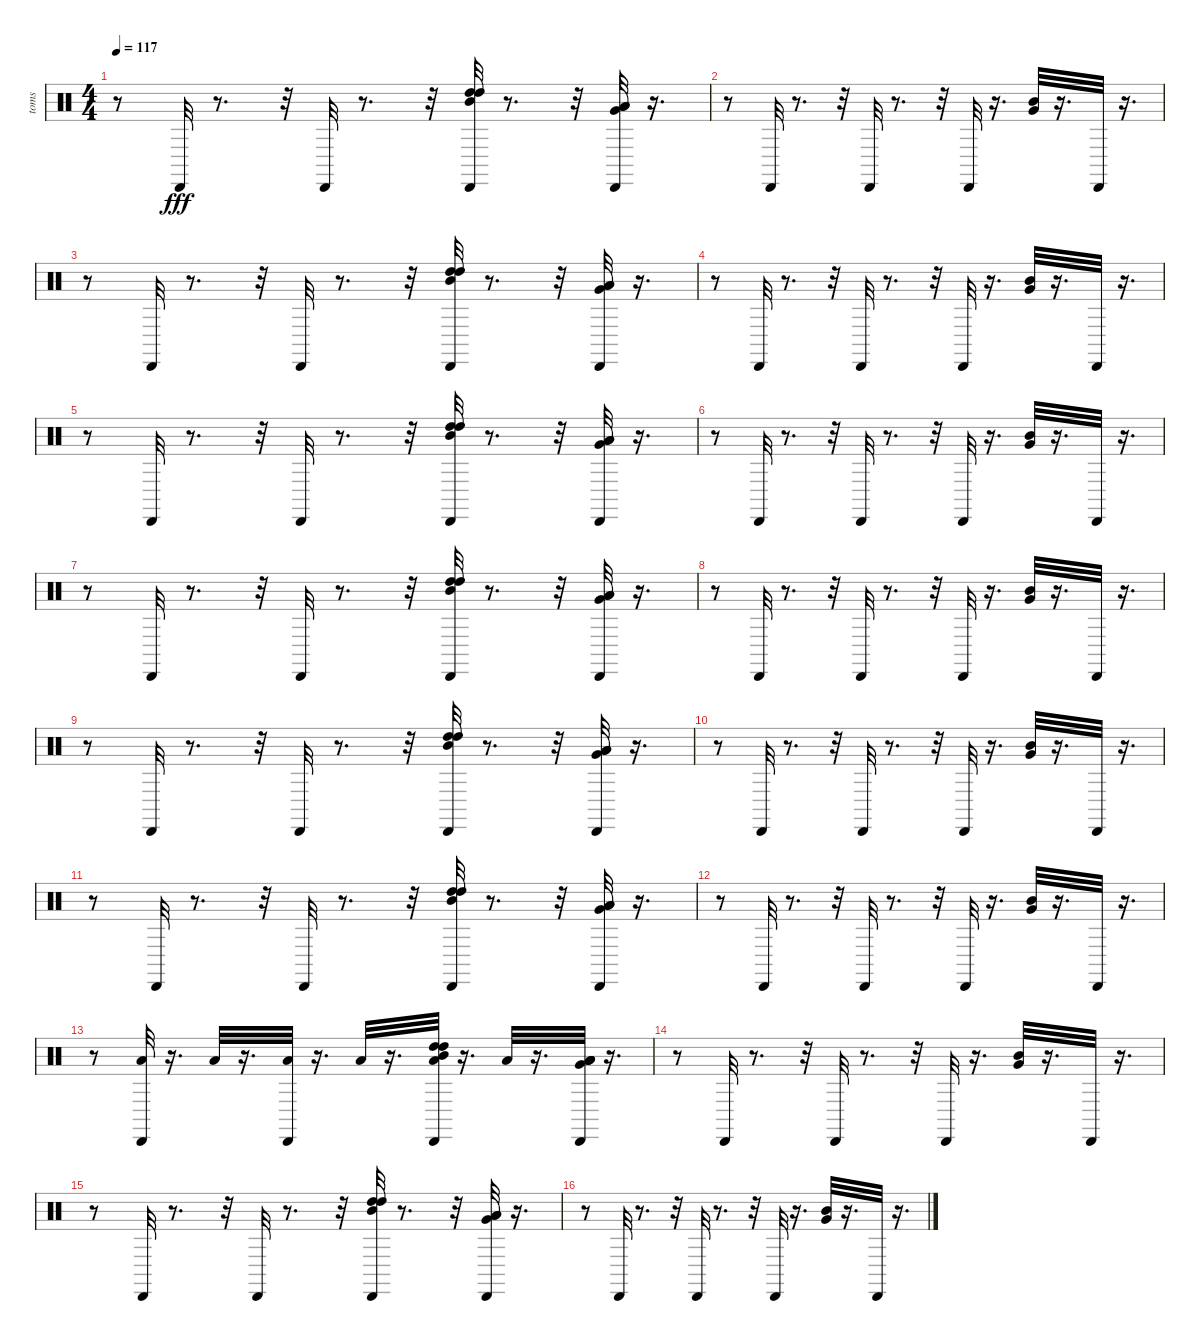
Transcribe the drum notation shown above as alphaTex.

\track ("toms" "toms") {instrument percussion}
\staff {score}
\articulation defaults
\ts (4 4)
\tempo 117
\clef neutral
\ks c
r.8{dy fff} "Cabasa (hit)".32 r.8{d} r.32 "Cabasa (hit)".32 r.8{d} r.32 ("High Tom (hit)" "High Tom (hit)" "Mid Tom (hit)" "Cabasa (hit)").32 r.8{d} r.32 ("Low Tom (hit)" "Low Tom (hit)" "Very Low Tom (hit)" "Cabasa (hit)").32 r.16{d} |
r.8 "Cabasa (hit)".32 r.8{d} r.32 "Cabasa (hit)".32 r.8{d} r.32 "Cabasa (hit)".32 r.16{d} ("Very Low Tom (hit)" "Mid Tom (hit)").32 r.16{d} "Cabasa (hit)".32 r.16{d} |
r.8 "Cabasa (hit)".32 r.8{d} r.32 "Cabasa (hit)".32 r.8{d} r.32 ("High Tom (hit)" "High Tom (hit)" "Mid Tom (hit)" "Cabasa (hit)").32 r.8{d} r.32 ("Low Tom (hit)" "Low Tom (hit)" "Very Low Tom (hit)" "Cabasa (hit)").32 r.16{d} |
r.8 "Cabasa (hit)".32 r.8{d} r.32 "Cabasa (hit)".32 r.8{d} r.32 "Cabasa (hit)".32 r.16{d} ("Very Low Tom (hit)" "Mid Tom (hit)").32 r.16{d} "Cabasa (hit)".32 r.16{d} |
r.8 "Cabasa (hit)".32 r.8{d} r.32 "Cabasa (hit)".32 r.8{d} r.32 ("High Tom (hit)" "High Tom (hit)" "Mid Tom (hit)" "Cabasa (hit)").32 r.8{d} r.32 ("Low Tom (hit)" "Low Tom (hit)" "Very Low Tom (hit)" "Cabasa (hit)").32 r.16{d} |
r.8 "Cabasa (hit)".32 r.8{d} r.32 "Cabasa (hit)".32 r.8{d} r.32 "Cabasa (hit)".32 r.16{d} ("Very Low Tom (hit)" "Mid Tom (hit)").32 r.16{d} "Cabasa (hit)".32 r.16{d} |
r.8 "Cabasa (hit)".32 r.8{d} r.32 "Cabasa (hit)".32 r.8{d} r.32 ("High Tom (hit)" "High Tom (hit)" "Mid Tom (hit)" "Cabasa (hit)").32 r.8{d} r.32 ("Low Tom (hit)" "Low Tom (hit)" "Very Low Tom (hit)" "Cabasa (hit)").32 r.16{d} |
r.8 "Cabasa (hit)".32 r.8{d} r.32 "Cabasa (hit)".32 r.8{d} r.32 "Cabasa (hit)".32 r.16{d} ("Very Low Tom (hit)" "Mid Tom (hit)").32 r.16{d} "Cabasa (hit)".32 r.16{d} |
r.8 "Cabasa (hit)".32 r.8{d} r.32 "Cabasa (hit)".32 r.8{d} r.32 ("High Tom (hit)" "High Tom (hit)" "Mid Tom (hit)" "Cabasa (hit)").32 r.8{d} r.32 ("Low Tom (hit)" "Low Tom (hit)" "Very Low Tom (hit)" "Cabasa (hit)").32 r.16{d} |
r.8 "Cabasa (hit)".32 r.8{d} r.32 "Cabasa (hit)".32 r.8{d} r.32 "Cabasa (hit)".32 r.16{d} ("Very Low Tom (hit)" "Mid Tom (hit)").32 r.16{d} "Cabasa (hit)".32 r.16{d} |
r.8 "Cabasa (hit)".32 r.8{d} r.32 "Cabasa (hit)".32 r.8{d} r.32 ("High Tom (hit)" "High Tom (hit)" "Mid Tom (hit)" "Cabasa (hit)").32 r.8{d} r.32 ("Low Tom (hit)" "Low Tom (hit)" "Very Low Tom (hit)" "Cabasa (hit)").32 r.16{d} |
r.8 "Cabasa (hit)".32 r.8{d} r.32 "Cabasa (hit)".32 r.8{d} r.32 "Cabasa (hit)".32 r.16{d} ("Very Low Tom (hit)" "Mid Tom (hit)").32 r.16{d} "Cabasa (hit)".32 r.16{d} |
r.8 ("Low Tom (hit)" "Cabasa (hit)").32 r.16{d} "Low Tom (hit)".32 r.16{d} ("Low Tom (hit)" "Cabasa (hit)").32 r.16{d} "Low Tom (hit)".32 r.16{d} ("Low Tom (hit)" "High Tom (hit)" "High Tom (hit)" "Mid Tom (hit)" "Cabasa (hit)").32 r.16{d} "Low Tom (hit)".32 r.16{d} ("Low Tom (hit)" "Low Tom (hit)" "Low Tom (hit)" "Very Low Tom (hit)" "Cabasa (hit)").32 r.16{d} |
r.8 "Cabasa (hit)".32 r.8{d} r.32 "Cabasa (hit)".32 r.8{d} r.32 "Cabasa (hit)".32 r.16{d} ("Very Low Tom (hit)" "Mid Tom (hit)").32 r.16{d} "Cabasa (hit)".32 r.16{d} |
r.8 "Cabasa (hit)".32 r.8{d} r.32 "Cabasa (hit)".32 r.8{d} r.32 ("High Tom (hit)" "High Tom (hit)" "Mid Tom (hit)" "Cabasa (hit)").32 r.8{d} r.32 ("Low Tom (hit)" "Low Tom (hit)" "Very Low Tom (hit)" "Cabasa (hit)").32 r.16{d} |
r.8 "Cabasa (hit)".32 r.8{d} r.32 "Cabasa (hit)".32 r.8{d} r.32 "Cabasa (hit)".32 r.16{d} ("Very Low Tom (hit)" "Mid Tom (hit)").32 r.16{d} "Cabasa (hit)".32 r.16{d}
